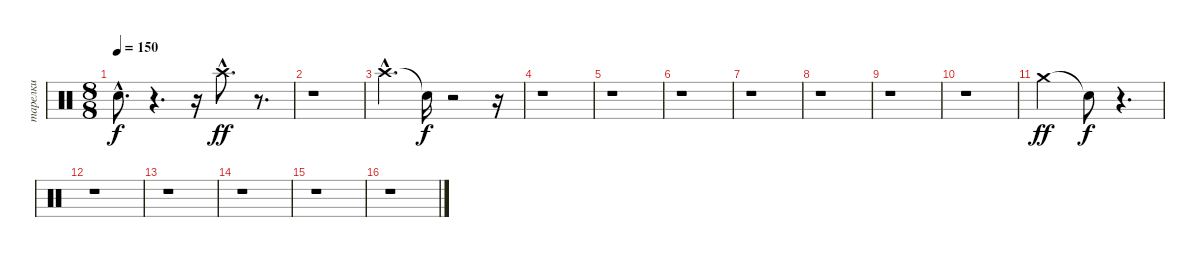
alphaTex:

\track ("тарелки" "тарелки") {instrument percussion}
\staff {score}
\articulation defaults
\ts (8 8)
\tempo 150
\clef neutral
\ks c "Snare (hit)"{hac t}.8{d dy f}
r.4{d} r.16 "Crash high (hit)"{hac}.8{d dy ff} r.8{d} |
r.1 |
"Crash high (hit)"{hac}.4{d} "Snare (hit)"{t}.16{dy f} r.2 r.16 |
r.1 |
r.1 |
r.1 |
r.1 |
r.1 |
r.1 |
r.1 |
"Crash medium (hit)".2{dy ff} "Snare (hit)"{t}.8{dy f} r.4{d} |
r.1 |
r.1 |
r.1 |
r.1 |
r.1
